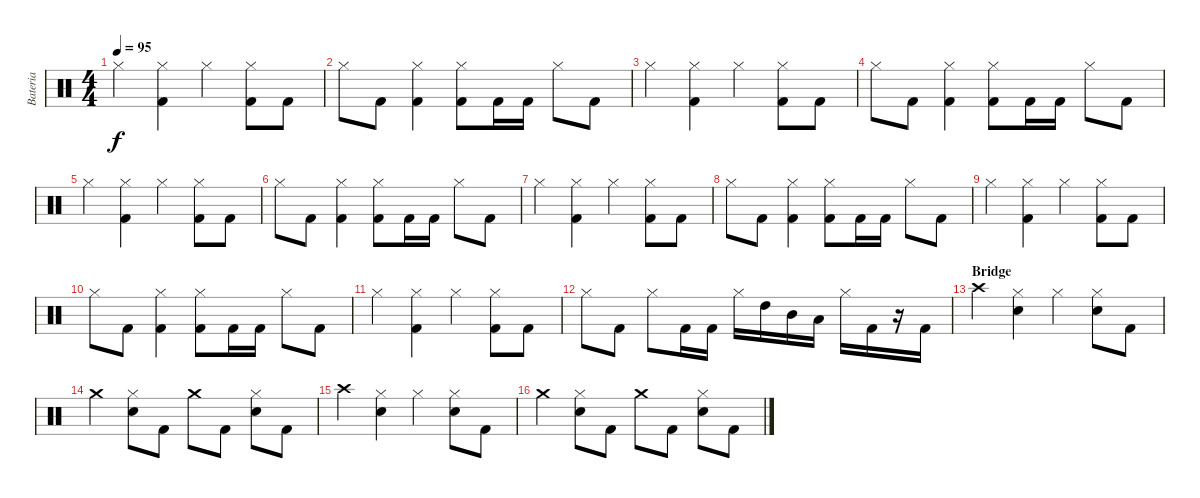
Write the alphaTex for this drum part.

\track ("Bateria" "Bateria") {instrument percussion}
\staff {score}
\articulation defaults
\ts (4 4)
\tempo 95
\clef neutral
\ks c "Hi-Hat (closed)".4{dy f}
("Hi-Hat (closed)" "Kick (hit) 2").4 "Hi-Hat (closed)".4 ("Hi-Hat (closed)" "Kick (hit) 2").8 "Kick (hit) 2".8 |
"Hi-Hat (closed)".8 "Kick (hit) 2".8 ("Hi-Hat (closed)" "Kick (hit) 2").4 ("Hi-Hat (closed)" "Kick (hit) 2").8 "Kick (hit) 2".16 "Kick (hit) 2".16 "Hi-Hat (closed)".8 "Kick (hit) 2".8 |
"Hi-Hat (closed)".4 ("Hi-Hat (closed)" "Kick (hit) 2").4 "Hi-Hat (closed)".4 ("Hi-Hat (closed)" "Kick (hit) 2").8 "Kick (hit) 2".8 |
"Hi-Hat (closed)".8 "Kick (hit) 2".8 ("Hi-Hat (closed)" "Kick (hit) 2").4 ("Hi-Hat (closed)" "Kick (hit) 2").8 "Kick (hit) 2".16 "Kick (hit) 2".16 "Hi-Hat (closed)".8 "Kick (hit) 2".8 |
"Hi-Hat (closed)".4 ("Hi-Hat (closed)" "Kick (hit) 2").4 "Hi-Hat (closed)".4 ("Hi-Hat (closed)" "Kick (hit) 2").8 "Kick (hit) 2".8 |
"Hi-Hat (closed)".8 "Kick (hit) 2".8 ("Hi-Hat (closed)" "Kick (hit) 2").4 ("Hi-Hat (closed)" "Kick (hit) 2").8 "Kick (hit) 2".16 "Kick (hit) 2".16 "Hi-Hat (closed)".8 "Kick (hit) 2".8 |
"Hi-Hat (closed)".4 ("Hi-Hat (closed)" "Kick (hit) 2").4 "Hi-Hat (closed)".4 ("Hi-Hat (closed)" "Kick (hit) 2").8 "Kick (hit) 2".8 |
"Hi-Hat (closed)".8 "Kick (hit) 2".8 ("Hi-Hat (closed)" "Kick (hit) 2").4 ("Hi-Hat (closed)" "Kick (hit) 2").8 "Kick (hit) 2".16 "Kick (hit) 2".16 "Hi-Hat (closed)".8 "Kick (hit) 2".8 |
"Hi-Hat (closed)".4 ("Hi-Hat (closed)" "Kick (hit) 2").4 "Hi-Hat (closed)".4 ("Hi-Hat (closed)" "Kick (hit) 2").8 "Kick (hit) 2".8 |
"Hi-Hat (closed)".8 "Kick (hit) 2".8 ("Hi-Hat (closed)" "Kick (hit) 2").4 ("Hi-Hat (closed)" "Kick (hit) 2").8 "Kick (hit) 2".16 "Kick (hit) 2".16 "Hi-Hat (closed)".8 "Kick (hit) 2".8 |
"Hi-Hat (closed)".4 ("Hi-Hat (closed)" "Kick (hit) 2").4 "Hi-Hat (closed)".4 ("Hi-Hat (closed)" "Kick (hit) 2").8 "Kick (hit) 2".8 |
"Hi-Hat (closed)".8 "Kick (hit) 2".8 "Hi-Hat (closed)".8 "Kick (hit) 2".16 "Kick (hit) 2".16 "Hi-Hat (closed)".16 "High Tom (hit)".16 "Mid Tom (hit)".16 "Low Tom (hit)".16 "Hi-Hat (closed)".16 "Kick (hit) 2".16 r.16 "Kick (hit) 2".16 |
\section ("" "Bridge")
"Crash high (hit)".4 ("Hi-Hat (closed)" "Snare (hit) 2").4 "Hi-Hat (closed)".4 ("Hi-Hat (closed)" "Snare (hit) 2").8 "Kick (hit) 2".8 |
"Crash medium (hit)".4 ("Hi-Hat (closed)" "Snare (hit) 2").8 "Kick (hit) 2".8 "Crash medium (hit)".8 "Kick (hit) 2".8 ("Hi-Hat (closed)" "Snare (hit) 2").8 "Kick (hit) 2".8 |
"Crash high (hit)".4 ("Hi-Hat (closed)" "Snare (hit) 2").4 "Hi-Hat (closed)".4 ("Hi-Hat (closed)" "Snare (hit) 2").8 "Kick (hit) 2".8 |
"Crash medium (hit)".4 ("Hi-Hat (closed)" "Snare (hit) 2").8 "Kick (hit) 2".8 "Crash medium (hit)".8 "Kick (hit) 2".8 ("Hi-Hat (closed)" "Snare (hit) 2").8 "Kick (hit) 2".8
